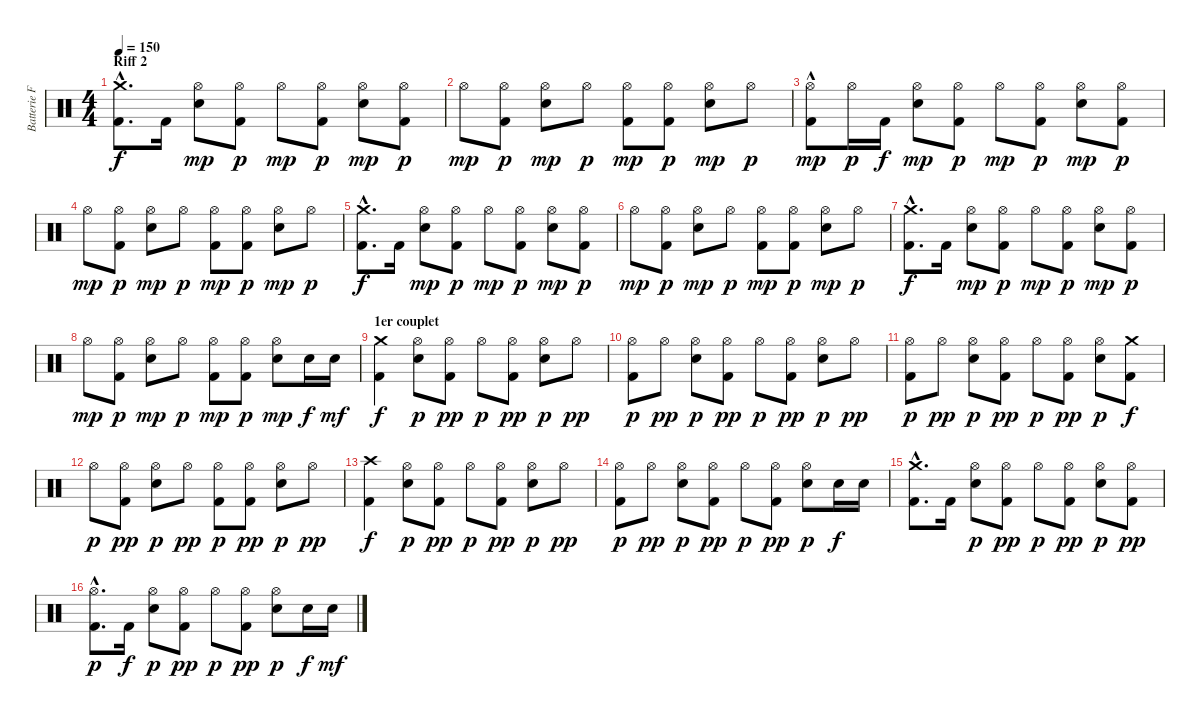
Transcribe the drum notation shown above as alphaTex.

\track ("Batterie Franck" "Batterie F") {instrument percussion}
\staff {score}
\articulation defaults
\ts (4 4)
\section ("" "Riff 2")
\tempo 150
\clef neutral
\ks c
("Crash medium (hit)"{hac} "Kick (hit) 2"{hac}).8{d dy f} "Kick (hit) 2".16 ("Hi-Hat (open)" "Snare (hit) 2").8{dy mp} ("Hi-Hat (open)" "Kick (hit) 2").8{dy p} "Hi-Hat (open)".8{dy mp} ("Hi-Hat (open)" "Kick (hit) 2").8{dy p} ("Hi-Hat (open)" "Snare (hit) 2").8{dy mp} ("Hi-Hat (open)" "Kick (hit) 2").8{dy p} |
"Hi-Hat (open)".8{dy mp} ("Hi-Hat (open)" "Kick (hit) 2").8{dy p} ("Hi-Hat (open)" "Snare (hit) 2").8{dy mp} "Hi-Hat (open)".8{dy p} ("Hi-Hat (open)" "Kick (hit) 2").8{dy mp} ("Hi-Hat (open)" "Kick (hit) 2").8{dy p} ("Hi-Hat (open)" "Snare (hit) 2").8{dy mp} "Hi-Hat (open)".8{dy p} |
("Hi-Hat (open)"{hac} "Kick (hit) 2").8{dy mp} "Hi-Hat (open)".16{dy p} "Kick (hit) 2".16{dy f} ("Hi-Hat (open)" "Snare (hit) 2").8{dy mp} ("Hi-Hat (open)" "Kick (hit) 2").8{dy p} "Hi-Hat (open)".8{dy mp} ("Hi-Hat (open)" "Kick (hit) 2").8{dy p} ("Hi-Hat (open)" "Snare (hit) 2").8{dy mp} ("Hi-Hat (open)" "Kick (hit) 2").8{dy p} |
"Hi-Hat (open)".8{dy mp} ("Hi-Hat (open)" "Kick (hit) 2").8{dy p} ("Hi-Hat (open)" "Snare (hit) 2").8{dy mp} "Hi-Hat (open)".8{dy p} ("Hi-Hat (open)" "Kick (hit) 2").8{dy mp} ("Hi-Hat (open)" "Kick (hit) 2").8{dy p} ("Hi-Hat (open)" "Snare (hit) 2").8{dy mp} "Hi-Hat (open)".8{dy p} |
("Crash medium (hit)"{hac} "Kick (hit) 2"{hac}).8{d dy f} "Kick (hit) 2".16 ("Hi-Hat (open)" "Snare (hit) 2").8{dy mp} ("Hi-Hat (open)" "Kick (hit) 2").8{dy p} "Hi-Hat (open)".8{dy mp} ("Hi-Hat (open)" "Kick (hit) 2").8{dy p} ("Hi-Hat (open)" "Snare (hit) 2").8{dy mp} ("Hi-Hat (open)" "Kick (hit) 2").8{dy p} |
"Hi-Hat (open)".8{dy mp} ("Hi-Hat (open)" "Kick (hit) 2").8{dy p} ("Hi-Hat (open)" "Snare (hit) 2").8{dy mp} "Hi-Hat (open)".8{dy p} ("Hi-Hat (open)" "Kick (hit) 2").8{dy mp} ("Hi-Hat (open)" "Kick (hit) 2").8{dy p} ("Hi-Hat (open)" "Snare (hit) 2").8{dy mp} "Hi-Hat (open)".8{dy p} |
("Crash medium (hit)"{hac} "Kick (hit) 2"{hac}).8{d dy f} "Kick (hit) 2".16 ("Hi-Hat (open)" "Snare (hit) 2").8{dy mp} ("Hi-Hat (open)" "Kick (hit) 2").8{dy p} "Hi-Hat (open)".8{dy mp} ("Hi-Hat (open)" "Kick (hit) 2").8{dy p} ("Hi-Hat (open)" "Snare (hit) 2").8{dy mp} ("Hi-Hat (open)" "Kick (hit) 2").8{dy p} |
"Hi-Hat (open)".8{dy mp} ("Hi-Hat (open)" "Kick (hit) 2").8{dy p} ("Hi-Hat (open)" "Snare (hit) 2").8{dy mp} "Hi-Hat (open)".8{dy p} ("Hi-Hat (open)" "Kick (hit) 2").8{dy mp} ("Hi-Hat (open)" "Kick (hit) 2").8{dy p} ("Hi-Hat (open)" "Snare (hit) 2").8{dy mp} "Snare (hit) 2".16{dy f} "Snare (hit) 2".16{dy mf} |
\section ("" "1er couplet")
("Crash medium (hit)" "Kick (hit) 2").4{dy f} ("Hi-Hat (open)" "Snare (hit) 2").8{dy p} ("Hi-Hat (open)" "Kick (hit) 2").8{dy pp} "Hi-Hat (open)".8{dy p} ("Hi-Hat (open)" "Kick (hit) 2").8{dy pp} ("Hi-Hat (open)" "Snare (hit) 2").8{dy p} "Hi-Hat (open)".8{dy pp} |
("Hi-Hat (open)" "Kick (hit) 2").8{dy p} "Hi-Hat (open)".8{dy pp} ("Hi-Hat (open)" "Snare (hit) 2").8{dy p} ("Hi-Hat (open)" "Kick (hit) 2").8{dy pp} "Hi-Hat (open)".8{dy p} ("Hi-Hat (open)" "Kick (hit) 2").8{dy pp} ("Hi-Hat (open)" "Snare (hit) 2").8{dy p} "Hi-Hat (open)".8{dy pp} |
("Hi-Hat (open)" "Kick (hit) 2").8{dy p} "Hi-Hat (open)".8{dy pp} ("Hi-Hat (open)" "Snare (hit) 2").8{dy p} ("Hi-Hat (open)" "Kick (hit) 2").8{dy pp} "Hi-Hat (open)".8{dy p} ("Hi-Hat (open)" "Kick (hit) 2").8{dy pp} ("Hi-Hat (open)" "Snare (hit) 2").8{dy p} ("Crash medium (hit)" "Kick (hit) 2").8{dy f} |
"Hi-Hat (open)".8{dy p} ("Hi-Hat (open)" "Kick (hit) 2").8{dy pp} ("Hi-Hat (open)" "Snare (hit) 2").8{dy p} "Hi-Hat (open)".8{dy pp} ("Hi-Hat (open)" "Kick (hit) 2").8{dy p} ("Hi-Hat (open)" "Kick (hit) 2").8{dy pp} ("Hi-Hat (open)" "Snare (hit) 2").8{dy p} "Hi-Hat (open)".8{dy pp} |
("Crash high (hit)" "Kick (hit) 2").4{dy f} ("Hi-Hat (open)" "Snare (hit) 2").8{dy p} ("Hi-Hat (open)" "Kick (hit) 2").8{dy pp} "Hi-Hat (open)".8{dy p} ("Hi-Hat (open)" "Kick (hit) 2").8{dy pp} ("Hi-Hat (open)" "Snare (hit) 2").8{dy p} "Hi-Hat (open)".8{dy pp} |
("Hi-Hat (open)" "Kick (hit) 2").8{dy p} "Hi-Hat (open)".8{dy pp} ("Hi-Hat (open)" "Snare (hit) 2").8{dy p} ("Hi-Hat (open)" "Kick (hit) 2").8{dy pp} "Hi-Hat (open)".8{dy p} ("Hi-Hat (open)" "Kick (hit) 2").8{dy pp} ("Hi-Hat (open)" "Snare (hit) 2").8{dy p} "Snare (hit) 2".16{dy f} "Snare (hit) 2".16 |
("Crash medium (hit)"{hac} "Kick (hit) 2"{hac}).8{d} "Kick (hit) 2".16 ("Hi-Hat (open)" "Snare (hit) 2").8{dy p} ("Hi-Hat (open)" "Kick (hit) 2").8{dy pp} "Hi-Hat (open)".8{dy p} ("Hi-Hat (open)" "Kick (hit) 2").8{dy pp} ("Hi-Hat (open)" "Snare (hit) 2").8{dy p} ("Hi-Hat (open)" "Kick (hit) 2").8{dy pp} |
("Hi-Hat (open)" "Kick (hit) 2"{hac}).8{d dy p} "Kick (hit) 2".16{dy f} ("Hi-Hat (open)" "Snare (hit) 2").8{dy p} ("Hi-Hat (open)" "Kick (hit) 2").8{dy pp} "Hi-Hat (open)".8{dy p} ("Hi-Hat (open)" "Kick (hit) 2").8{dy pp} ("Hi-Hat (open)" "Snare (hit) 2").8{dy p} "Snare (hit) 2".16{dy f} "Snare (hit) 2".16{dy mf}
